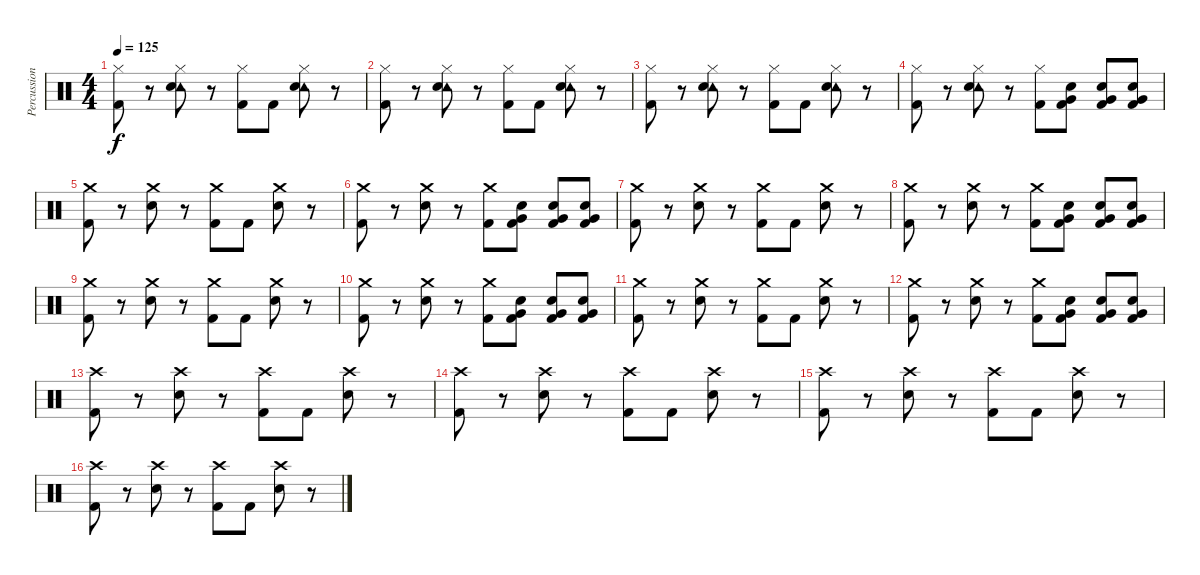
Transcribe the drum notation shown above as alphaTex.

\track ("Percussion" "Percussion") {instrument percussion}
\staff {score}
\articulation defaults
\ts (4 4)
\tempo 125
\clef neutral
\ks c
("Hi-Hat (closed)" "Kick (hit) 2").8{dy f} r.8 ("Tambourine (hit)" "Hi-Hat (closed)" "Electric Snare (hit)").8 r.8 ("Hi-Hat (closed)" "Kick (hit) 2").8 "Kick (hit) 2".8 ("Tambourine (hit)" "Hi-Hat (closed)" "Electric Snare (hit)").8 r.8 |
("Hi-Hat (closed)" "Kick (hit) 2").8 r.8 ("Tambourine (hit)" "Hi-Hat (closed)" "Electric Snare (hit)").8 r.8 ("Hi-Hat (closed)" "Kick (hit) 2").8 "Kick (hit) 2".8 ("Tambourine (hit)" "Hi-Hat (closed)" "Electric Snare (hit)").8 r.8 |
("Hi-Hat (closed)" "Kick (hit) 2").8 r.8 ("Tambourine (hit)" "Hi-Hat (closed)" "Electric Snare (hit)").8 r.8 ("Hi-Hat (closed)" "Kick (hit) 2").8 "Kick (hit) 2".8 ("Tambourine (hit)" "Hi-Hat (closed)" "Electric Snare (hit)").8 r.8 |
("Hi-Hat (closed)" "Kick (hit) 2").8 r.8 ("Tambourine (hit)" "Hi-Hat (closed)" "Electric Snare (hit)").8 r.8 ("Hi-Hat (closed)" "Kick (hit) 2").8 ("Very Low Tom (hit)" "Electric Snare (hit)" "Kick (hit) 2").8 ("Very Low Tom (hit)" "Electric Snare (hit)" "Kick (hit) 2").8 ("Very Low Tom (hit)" "Electric Snare (hit)" "Kick (hit) 2").8 |
("Crash medium (hit)" "Kick (hit) 2").8 r.8 ("Crash medium (hit)" "Electric Snare (hit)").8 r.8 ("Crash medium (hit)" "Kick (hit) 2").8 "Kick (hit) 2".8 ("Crash medium (hit)" "Electric Snare (hit)").8 r.8 |
("Crash medium (hit)" "Kick (hit) 2").8 r.8 ("Crash medium (hit)" "Electric Snare (hit)").8 r.8 ("Crash medium (hit)" "Kick (hit) 2").8 ("Very Low Tom (hit)" "Electric Snare (hit)" "Kick (hit) 2").8 ("Very Low Tom (hit)" "Electric Snare (hit)" "Kick (hit) 2").8 ("Very Low Tom (hit)" "Electric Snare (hit)" "Kick (hit) 2").8 |
("Crash medium (hit)" "Kick (hit) 2").8 r.8 ("Crash medium (hit)" "Electric Snare (hit)").8 r.8 ("Crash medium (hit)" "Kick (hit) 2").8 "Kick (hit) 2".8 ("Crash medium (hit)" "Electric Snare (hit)").8 r.8 |
("Crash medium (hit)" "Kick (hit) 2").8 r.8 ("Crash medium (hit)" "Electric Snare (hit)").8 r.8 ("Crash medium (hit)" "Kick (hit) 2").8 ("Very Low Tom (hit)" "Electric Snare (hit)" "Kick (hit) 2").8 ("Very Low Tom (hit)" "Electric Snare (hit)" "Kick (hit) 2").8 ("Very Low Tom (hit)" "Electric Snare (hit)" "Kick (hit) 2").8 |
("Crash medium (hit)" "Kick (hit) 2").8 r.8 ("Crash medium (hit)" "Electric Snare (hit)").8 r.8 ("Crash medium (hit)" "Kick (hit) 2").8 "Kick (hit) 2".8 ("Crash medium (hit)" "Electric Snare (hit)").8 r.8 |
("Crash medium (hit)" "Kick (hit) 2").8 r.8 ("Crash medium (hit)" "Electric Snare (hit)").8 r.8 ("Crash medium (hit)" "Kick (hit) 2").8 ("Very Low Tom (hit)" "Electric Snare (hit)" "Kick (hit) 2").8 ("Very Low Tom (hit)" "Electric Snare (hit)" "Kick (hit) 2").8 ("Very Low Tom (hit)" "Electric Snare (hit)" "Kick (hit) 2").8 |
("Crash medium (hit)" "Kick (hit) 2").8 r.8 ("Crash medium (hit)" "Electric Snare (hit)").8 r.8 ("Crash medium (hit)" "Kick (hit) 2").8 "Kick (hit) 2".8 ("Crash medium (hit)" "Electric Snare (hit)").8 r.8 |
("Crash medium (hit)" "Kick (hit) 2").8 r.8 ("Crash medium (hit)" "Electric Snare (hit)").8 r.8 ("Crash medium (hit)" "Kick (hit) 2").8 ("Very Low Tom (hit)" "Electric Snare (hit)" "Kick (hit) 2").8 ("Very Low Tom (hit)" "Electric Snare (hit)" "Kick (hit) 2").8 ("Very Low Tom (hit)" "Electric Snare (hit)" "Kick (hit) 2").8 |
("Crash high (hit)" "Kick (hit) 2").8 r.8 ("Crash high (hit)" "Electric Snare (hit)").8 r.8 ("Crash high (hit)" "Kick (hit) 2").8 "Kick (hit) 2".8 ("Crash high (hit)" "Electric Snare (hit)").8 r.8 |
("Crash high (hit)" "Kick (hit) 2").8 r.8 ("Crash high (hit)" "Electric Snare (hit)").8 r.8 ("Crash high (hit)" "Kick (hit) 2").8 "Kick (hit) 2".8 ("Crash high (hit)" "Electric Snare (hit)").8 r.8 |
("Crash high (hit)" "Kick (hit) 2").8 r.8 ("Crash high (hit)" "Electric Snare (hit)").8 r.8 ("Crash high (hit)" "Kick (hit) 2").8 "Kick (hit) 2".8 ("Crash high (hit)" "Electric Snare (hit)").8 r.8 |
("Crash high (hit)" "Kick (hit) 2").8 r.8 ("Crash high (hit)" "Electric Snare (hit)").8 r.8 ("Crash high (hit)" "Kick (hit) 2").8 "Kick (hit) 2".8 ("Crash high (hit)" "Electric Snare (hit)").8 r.8
